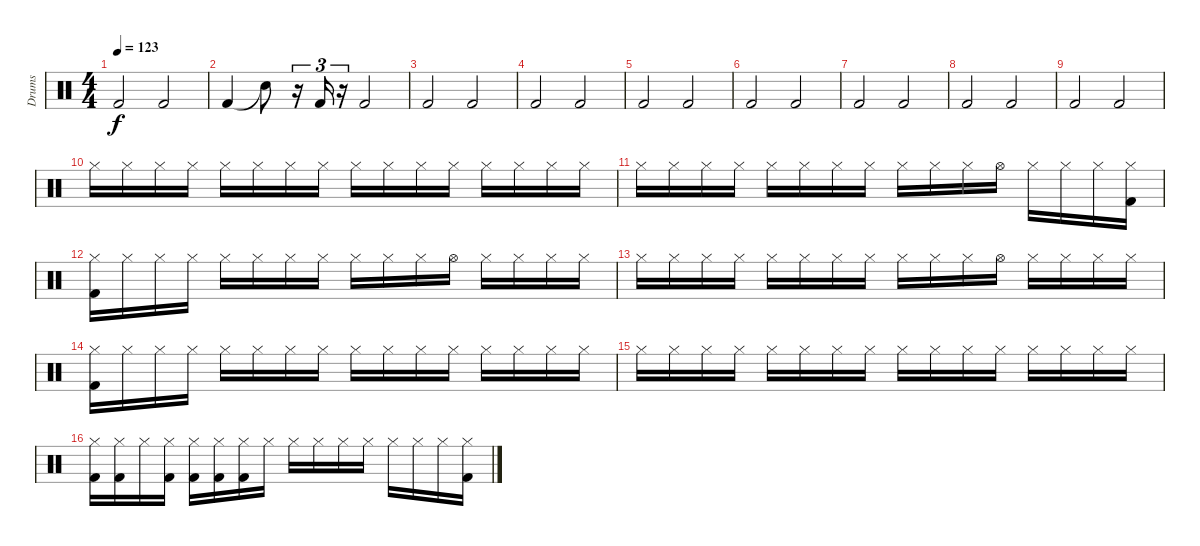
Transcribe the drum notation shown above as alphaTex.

\track ("Drums" "Drums") {instrument percussion}
\staff {score}
\articulation defaults
\ts (4 4)
\tempo 123
\clef neutral
\ks c "Kick (hit) 2".2{dy f} "Kick (hit) 2".2
|
"Kick (hit) 2".4 "Snare (hit)"{t}.8 r.16{tu (3 2)} "Kick (hit) 2".16{tu (3 2)} r.16{tu (3 2)} "Kick (hit) 2".2 |
"Kick (hit) 2".2 "Kick (hit) 2".2 |
"Kick (hit) 2".2 "Kick (hit) 2".2 |
"Kick (hit) 2".2 "Kick (hit) 2".2 |
"Kick (hit) 2".2 "Kick (hit) 2".2 |
"Kick (hit) 2".2 "Kick (hit) 2".2 |
"Kick (hit) 2".2 "Kick (hit) 2".2 |
"Kick (hit) 2".2 "Kick (hit) 2".2 |
"Hi-Hat (closed)".16 "Hi-Hat (closed)".16 "Hi-Hat (closed)".16 "Hi-Hat (closed)".16 "Hi-Hat (closed)".16 "Hi-Hat (closed)".16 "Hi-Hat (closed)".16 "Hi-Hat (closed)".16 "Hi-Hat (closed)".16 "Hi-Hat (closed)".16 "Hi-Hat (closed)".16 "Hi-Hat (closed)".16 "Hi-Hat (closed)".16 "Hi-Hat (closed)".16 "Hi-Hat (closed)".16 "Hi-Hat (closed)".16 |
"Hi-Hat (closed)".16 "Hi-Hat (closed)".16 "Hi-Hat (closed)".16 "Hi-Hat (closed)".16 "Hi-Hat (closed)".16 "Hi-Hat (closed)".16 "Hi-Hat (closed)".16 "Hi-Hat (closed)".16 "Hi-Hat (closed)".16 "Hi-Hat (closed)".16 "Hi-Hat (closed)".16 "Hi-Hat (open)".16 "Hi-Hat (closed)".16 "Hi-Hat (closed)".16 "Hi-Hat (closed)".16 ("Hi-Hat (closed)" "Kick (hit) 2").16 |
("Hi-Hat (closed)" "Kick (hit) 2").16 "Hi-Hat (closed)".16 "Hi-Hat (closed)".16 "Hi-Hat (closed)".16 "Hi-Hat (closed)".16 "Hi-Hat (closed)".16 "Hi-Hat (closed)".16 "Hi-Hat (closed)".16 "Hi-Hat (closed)".16 "Hi-Hat (closed)".16 "Hi-Hat (closed)".16 "Hi-Hat (open)".16 "Hi-Hat (closed)".16 "Hi-Hat (closed)".16 "Hi-Hat (closed)".16 "Hi-Hat (closed)".16 |
"Hi-Hat (closed)".16 "Hi-Hat (closed)".16 "Hi-Hat (closed)".16 "Hi-Hat (closed)".16 "Hi-Hat (closed)".16 "Hi-Hat (closed)".16 "Hi-Hat (closed)".16 "Hi-Hat (closed)".16 "Hi-Hat (closed)".16 "Hi-Hat (closed)".16 "Hi-Hat (closed)".16 "Hi-Hat (open)".16 "Hi-Hat (closed)".16 "Hi-Hat (closed)".16 "Hi-Hat (closed)".16 "Hi-Hat (closed)".16 |
("Hi-Hat (closed)" "Kick (hit) 2").16 "Hi-Hat (closed)".16 "Hi-Hat (closed)".16 "Hi-Hat (closed)".16 "Hi-Hat (closed)".16 "Hi-Hat (closed)".16 "Hi-Hat (closed)".16 "Hi-Hat (closed)".16 "Hi-Hat (closed)".16 "Hi-Hat (closed)".16 "Hi-Hat (closed)".16 "Hi-Hat (closed)".16 "Hi-Hat (closed)".16 "Hi-Hat (closed)".16 "Hi-Hat (closed)".16 "Hi-Hat (closed)".16 |
"Hi-Hat (closed)".16 "Hi-Hat (closed)".16 "Hi-Hat (closed)".16 "Hi-Hat (closed)".16 "Hi-Hat (closed)".16 "Hi-Hat (closed)".16 "Hi-Hat (closed)".16 "Hi-Hat (closed)".16 "Hi-Hat (closed)".16 "Hi-Hat (closed)".16 "Hi-Hat (closed)".16 "Hi-Hat (closed)".16 "Hi-Hat (closed)".16 "Hi-Hat (closed)".16 "Hi-Hat (closed)".16 "Hi-Hat (closed)".16 |
("Hi-Hat (closed)" "Kick (hit) 2").16 ("Hi-Hat (closed)" "Kick (hit) 2").16 "Hi-Hat (closed)".16 ("Hi-Hat (closed)" "Kick (hit) 2").16 ("Hi-Hat (closed)" "Kick (hit) 2").16 ("Hi-Hat (closed)" "Kick (hit) 2").16 ("Hi-Hat (closed)" "Kick (hit) 2").16 "Hi-Hat (closed)".16 "Hi-Hat (closed)".16 "Hi-Hat (closed)".16 "Hi-Hat (closed)".16 "Hi-Hat (closed)".16 "Hi-Hat (closed)".16 "Hi-Hat (closed)".16 "Hi-Hat (closed)".16 ("Hi-Hat (closed)" "Kick (hit) 2").16
